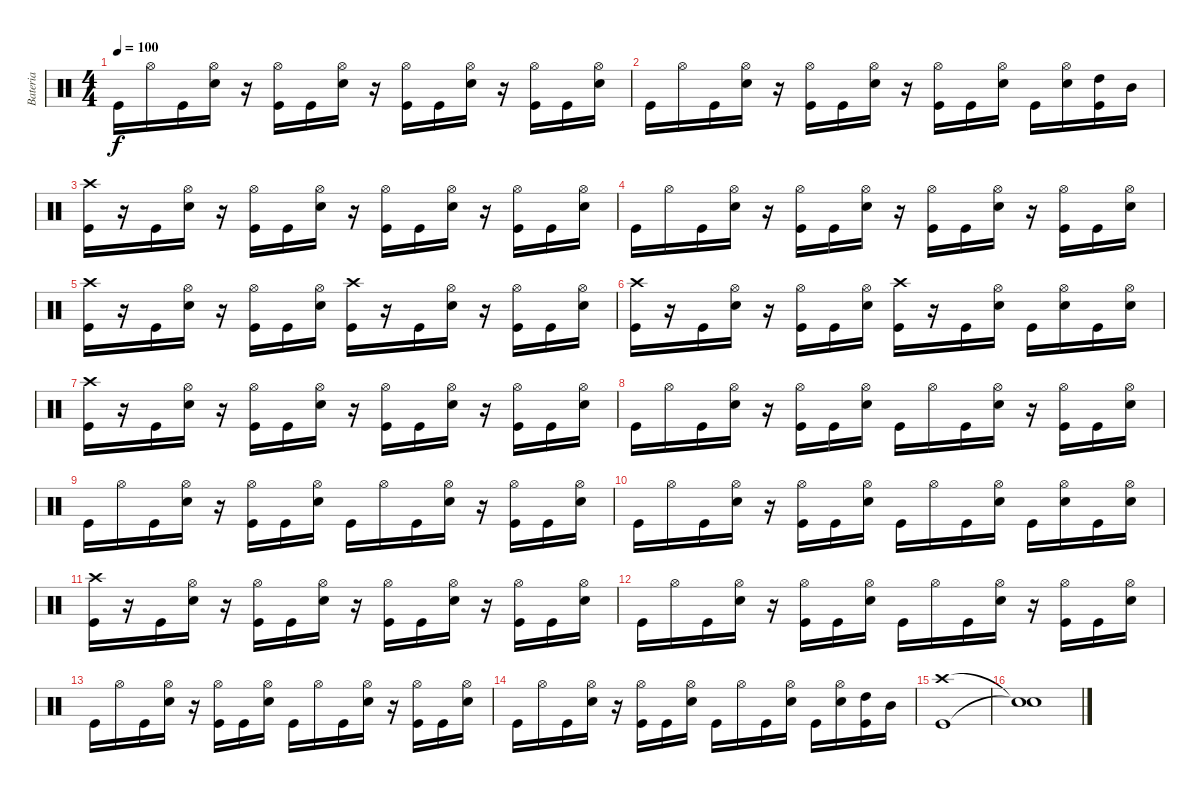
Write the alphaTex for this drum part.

\track ("Bateria" "Bateria") {instrument percussion}
\staff {score}
\articulation defaults
\ts (4 4)
\tempo 100
\clef neutral
\ks c "Kick (hit)".16{dy f} "Hi-Hat (open)".16 "Kick (hit)".16
("Snare (hit) 2" "Hi-Hat (open)").16 r.16 ("Hi-Hat (open)" "Kick (hit)").16 "Kick (hit)".16 ("Snare (hit) 2" "Hi-Hat (open)").16 r.16 ("Hi-Hat (open)" "Kick (hit)").16 "Kick (hit)".16 ("Snare (hit) 2" "Hi-Hat (open)").16 r.16 ("Hi-Hat (open)" "Kick (hit)").16 "Kick (hit)".16 ("Snare (hit) 2" "Hi-Hat (open)").16 |
"Kick (hit)".16 "Hi-Hat (open)".16 "Kick (hit)".16 ("Snare (hit) 2" "Hi-Hat (open)").16 r.16 ("Hi-Hat (open)" "Kick (hit)").16 "Kick (hit)".16 ("Snare (hit) 2" "Hi-Hat (open)").16 r.16 ("Hi-Hat (open)" "Kick (hit)").16 "Kick (hit)".16 ("Snare (hit) 2" "Hi-Hat (open)").16 "Kick (hit)".16 ("Snare (hit) 2" "Hi-Hat (open)").16 ("Kick (hit)" "High Tom (hit)").16 "Mid Tom (hit)".16 |
("Crash high (hit)" "Kick (hit)").16 r.16 "Kick (hit)".16 ("Snare (hit) 2" "Hi-Hat (open)").16 r.16 ("Hi-Hat (open)" "Kick (hit)").16 "Kick (hit)".16 ("Snare (hit) 2" "Hi-Hat (open)").16 r.16 ("Hi-Hat (open)" "Kick (hit)").16 "Kick (hit)".16 ("Snare (hit) 2" "Hi-Hat (open)").16 r.16 ("Hi-Hat (open)" "Kick (hit)").16 "Kick (hit)".16 ("Snare (hit) 2" "Hi-Hat (open)").16 |
"Kick (hit)".16 "Hi-Hat (open)".16 "Kick (hit)".16 ("Snare (hit) 2" "Hi-Hat (open)").16 r.16 ("Hi-Hat (open)" "Kick (hit)").16 "Kick (hit)".16 ("Snare (hit) 2" "Hi-Hat (open)").16 r.16 ("Hi-Hat (open)" "Kick (hit)").16 "Kick (hit)".16 ("Snare (hit) 2" "Hi-Hat (open)").16 r.16 ("Hi-Hat (open)" "Kick (hit)").16 "Kick (hit)".16 ("Snare (hit) 2" "Hi-Hat (open)").16 |
("Crash high (hit)" "Kick (hit)").16 r.16 "Kick (hit)".16 ("Snare (hit) 2" "Hi-Hat (open)").16 r.16 ("Hi-Hat (open)" "Kick (hit)").16 "Kick (hit)".16 ("Snare (hit) 2" "Hi-Hat (open)").16 ("Crash high (hit)" "Kick (hit)").16 r.16 "Kick (hit)".16 ("Snare (hit) 2" "Hi-Hat (open)").16 r.16 ("Hi-Hat (open)" "Kick (hit)").16 "Kick (hit)".16 ("Snare (hit) 2" "Hi-Hat (open)").16 |
("Crash high (hit)" "Kick (hit)").16 r.16 "Kick (hit)".16 ("Snare (hit) 2" "Hi-Hat (open)").16 r.16 ("Hi-Hat (open)" "Kick (hit)").16 "Kick (hit)".16 ("Snare (hit) 2" "Hi-Hat (open)").16 ("Crash high (hit)" "Kick (hit)").16 r.16 "Kick (hit)".16 ("Snare (hit) 2" "Hi-Hat (open)").16 "Kick (hit)".16 ("Snare (hit) 2" "Hi-Hat (open)").16 "Kick (hit)".16 ("Snare (hit) 2" "Hi-Hat (open)").16 |
("Crash high (hit)" "Kick (hit)").16 r.16 "Kick (hit)".16 ("Snare (hit) 2" "Hi-Hat (open)").16 r.16 ("Hi-Hat (open)" "Kick (hit)").16 "Kick (hit)".16 ("Snare (hit) 2" "Hi-Hat (open)").16 r.16 ("Hi-Hat (open)" "Kick (hit)").16 "Kick (hit)".16 ("Snare (hit) 2" "Hi-Hat (open)").16 r.16 ("Hi-Hat (open)" "Kick (hit)").16 "Kick (hit)".16 ("Snare (hit) 2" "Hi-Hat (open)").16 |
"Kick (hit)".16 "Hi-Hat (open)".16 "Kick (hit)".16 ("Snare (hit) 2" "Hi-Hat (open)").16 r.16 ("Hi-Hat (open)" "Kick (hit)").16 "Kick (hit)".16 ("Snare (hit) 2" "Hi-Hat (open)").16 "Kick (hit)".16 "Hi-Hat (open)".16 "Kick (hit)".16 ("Snare (hit) 2" "Hi-Hat (open)").16 r.16 ("Hi-Hat (open)" "Kick (hit)").16 "Kick (hit)".16 ("Snare (hit) 2" "Hi-Hat (open)").16 |
"Kick (hit)".16 "Hi-Hat (open)".16 "Kick (hit)".16 ("Snare (hit) 2" "Hi-Hat (open)").16 r.16 ("Hi-Hat (open)" "Kick (hit)").16 "Kick (hit)".16 ("Snare (hit) 2" "Hi-Hat (open)").16 "Kick (hit)".16 "Hi-Hat (open)".16 "Kick (hit)".16 ("Snare (hit) 2" "Hi-Hat (open)").16 r.16 ("Hi-Hat (open)" "Kick (hit)").16 "Kick (hit)".16 ("Snare (hit) 2" "Hi-Hat (open)").16 |
"Kick (hit)".16 "Hi-Hat (open)".16 "Kick (hit)".16 ("Snare (hit) 2" "Hi-Hat (open)").16 r.16 ("Hi-Hat (open)" "Kick (hit)").16 "Kick (hit)".16 ("Snare (hit) 2" "Hi-Hat (open)").16 "Kick (hit)".16 "Hi-Hat (open)".16 "Kick (hit)".16 ("Snare (hit) 2" "Hi-Hat (open)").16 "Kick (hit)".16 ("Snare (hit) 2" "Hi-Hat (open)").16 "Kick (hit)".16 ("Snare (hit) 2" "Hi-Hat (open)").16 |
("Crash high (hit)" "Kick (hit)").16 r.16 "Kick (hit)".16 ("Snare (hit) 2" "Hi-Hat (open)").16 r.16 ("Hi-Hat (open)" "Kick (hit)").16 "Kick (hit)".16 ("Snare (hit) 2" "Hi-Hat (open)").16 r.16 ("Hi-Hat (open)" "Kick (hit)").16 "Kick (hit)".16 ("Snare (hit) 2" "Hi-Hat (open)").16 r.16 ("Hi-Hat (open)" "Kick (hit)").16 "Kick (hit)".16 ("Snare (hit) 2" "Hi-Hat (open)").16 |
"Kick (hit)".16 "Hi-Hat (open)".16 "Kick (hit)".16 ("Snare (hit) 2" "Hi-Hat (open)").16 r.16 ("Hi-Hat (open)" "Kick (hit)").16 "Kick (hit)".16 ("Snare (hit) 2" "Hi-Hat (open)").16 "Kick (hit)".16 "Hi-Hat (open)".16 "Kick (hit)".16 ("Snare (hit) 2" "Hi-Hat (open)").16 r.16 ("Hi-Hat (open)" "Kick (hit)").16 "Kick (hit)".16 ("Snare (hit) 2" "Hi-Hat (open)").16 |
"Kick (hit)".16 "Hi-Hat (open)".16 "Kick (hit)".16 ("Snare (hit) 2" "Hi-Hat (open)").16 r.16 ("Hi-Hat (open)" "Kick (hit)").16 "Kick (hit)".16 ("Snare (hit) 2" "Hi-Hat (open)").16 "Kick (hit)".16 "Hi-Hat (open)".16 "Kick (hit)".16 ("Snare (hit) 2" "Hi-Hat (open)").16 r.16 ("Hi-Hat (open)" "Kick (hit)").16 "Kick (hit)".16 ("Snare (hit) 2" "Hi-Hat (open)").16 |
"Kick (hit)".16 "Hi-Hat (open)".16 "Kick (hit)".16 ("Snare (hit) 2" "Hi-Hat (open)").16 r.16 ("Hi-Hat (open)" "Kick (hit)").16 "Kick (hit)".16 ("Snare (hit) 2" "Hi-Hat (open)").16 "Kick (hit)".16 "Hi-Hat (open)".16 "Kick (hit)".16 ("Snare (hit) 2" "Hi-Hat (open)").16 "Kick (hit)".16 ("Snare (hit) 2" "Hi-Hat (open)").16 ("Kick (hit)" "High Tom (hit)").16 "Mid Tom (hit)".16 |
("Crash high (hit)" "Kick (hit)").1 |
("Snare (hit)"{t} "Snare (hit)"{t}).1
